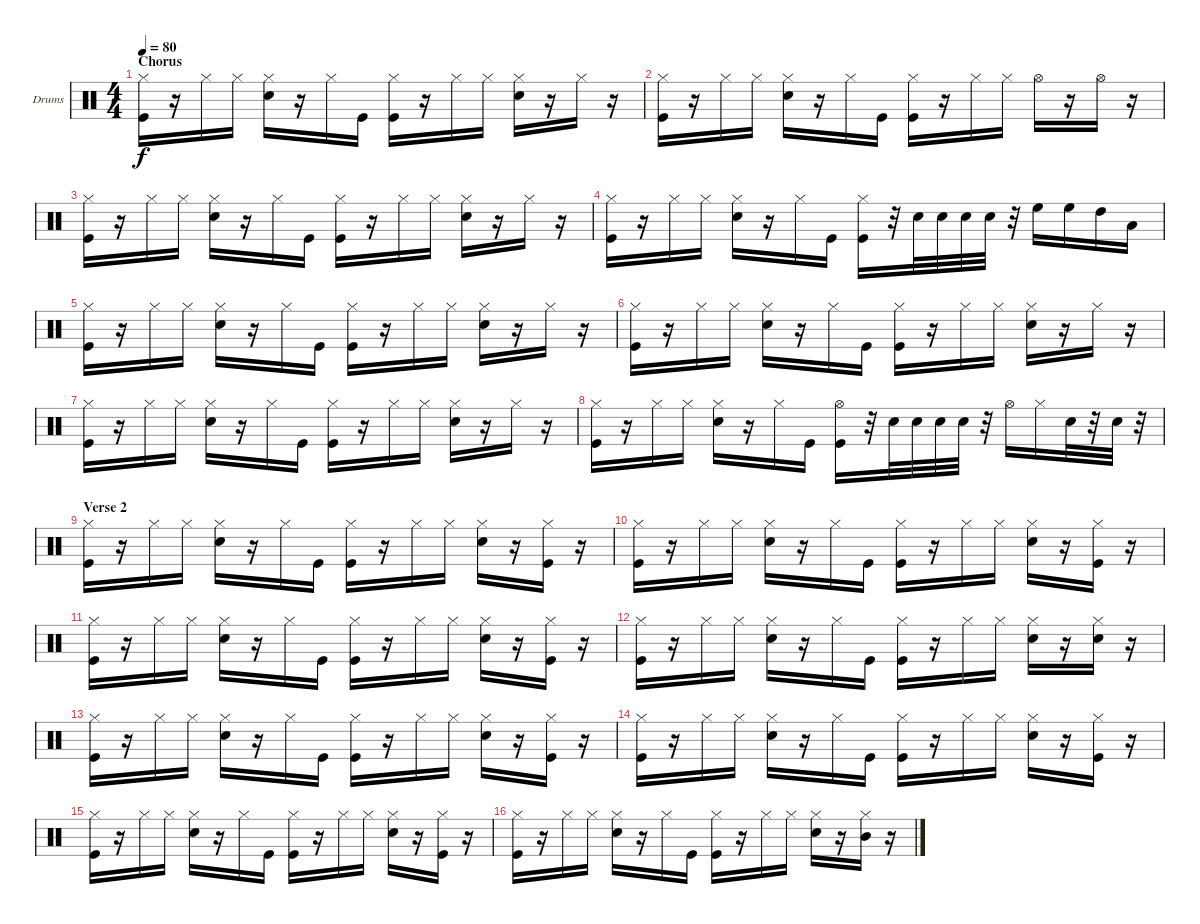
\bracketExtendMode groupsimilarinstruments
\firstSystemTrackNameOrientation horizontal
\otherSystemsTrackNameOrientation horizontal
\track ("Drumkit" "Drums") {instrument percussion}
\staff {score}
\articulation defaults
\ts (4 4)
\section ("" "Chorus")
\tempo 80
\clef neutral
\ks c
("Kick (hit)" "Hi-Hat (closed)").16{dy f} r.16 "Hi-Hat (closed)".16 "Hi-Hat (closed)".16 ("Snare (hit) 2" "Hi-Hat (closed)").16 r.16 "Hi-Hat (closed)".16 "Kick (hit)".16 ("Kick (hit)" "Hi-Hat (closed)").16 r.16 "Hi-Hat (closed)".16 "Hi-Hat (closed)".16 ("Snare (hit) 2" "Hi-Hat (closed)").16 r.16 "Hi-Hat (closed)".16 r.16 |
("Kick (hit)" "Hi-Hat (closed)").16 r.16 "Hi-Hat (closed)".16 "Hi-Hat (closed)".16 ("Snare (hit) 2" "Hi-Hat (closed)").16 r.16 "Hi-Hat (closed)".16 "Kick (hit)".16 ("Kick (hit)" "Hi-Hat (closed)").16 r.16 "Hi-Hat (closed)".16 "Hi-Hat (closed)".16 "Hi-Hat (open)".16 r.16 "Hi-Hat (open)".16 r.16 |
("Kick (hit)" "Hi-Hat (closed)").16 r.16 "Hi-Hat (closed)".16 "Hi-Hat (closed)".16 ("Snare (hit) 2" "Hi-Hat (closed)").16 r.16 "Hi-Hat (closed)".16 "Kick (hit)".16 ("Kick (hit)" "Hi-Hat (closed)").16 r.16 "Hi-Hat (closed)".16 "Hi-Hat (closed)".16 ("Snare (hit) 2" "Hi-Hat (closed)").16 r.16 "Hi-Hat (closed)".16 r.16 |
("Kick (hit)" "Hi-Hat (closed)").16 r.16 "Hi-Hat (closed)".16 "Hi-Hat (closed)".16 ("Snare (hit) 2" "Hi-Hat (closed)").16 r.16 "Hi-Hat (closed)".16 "Kick (hit)".16 ("Kick (hit)" "Hi-Hat (closed)").16 r.32 "Snare (hit) 2".32 "Snare (hit) 2".32 "Snare (hit) 2".32 "Snare (hit) 2".32 r.32 "High Floor Tom (hit)".16 "High Floor Tom (hit)".16 "High Tom (hit)".16 "Low Tom (hit)".16 |
("Kick (hit)" "Hi-Hat (closed)").16 r.16 "Hi-Hat (closed)".16 "Hi-Hat (closed)".16 ("Snare (hit) 2" "Hi-Hat (closed)").16 r.16 "Hi-Hat (closed)".16 "Kick (hit)".16 ("Kick (hit)" "Hi-Hat (closed)").16 r.16 "Hi-Hat (closed)".16 "Hi-Hat (closed)".16 ("Snare (hit) 2" "Hi-Hat (closed)").16 r.16 "Hi-Hat (closed)".16 r.16 |
("Kick (hit)" "Hi-Hat (closed)").16 r.16 "Hi-Hat (closed)".16 "Hi-Hat (closed)".16 ("Snare (hit) 2" "Hi-Hat (closed)").16 r.16 "Hi-Hat (closed)".16 "Kick (hit)".16 ("Kick (hit)" "Hi-Hat (closed)").16 r.16 "Hi-Hat (closed)".16 "Hi-Hat (closed)".16 ("Snare (hit) 2" "Hi-Hat (closed)").16 r.16 "Hi-Hat (closed)".16 r.16 |
("Kick (hit)" "Hi-Hat (closed)").16 r.16 "Hi-Hat (closed)".16 "Hi-Hat (closed)".16 ("Snare (hit) 2" "Hi-Hat (closed)").16 r.16 "Hi-Hat (closed)".16 "Kick (hit)".16 ("Kick (hit)" "Hi-Hat (closed)").16 r.16 "Hi-Hat (closed)".16 "Hi-Hat (closed)".16 ("Snare (hit) 2" "Hi-Hat (closed)").16 r.16 "Hi-Hat (closed)".16 r.16 |
("Kick (hit)" "Hi-Hat (closed)").16 r.16 "Hi-Hat (closed)".16 "Hi-Hat (closed)".16 ("Snare (hit) 2" "Hi-Hat (closed)").16 r.16 "Hi-Hat (closed)".16 "Kick (hit)".16 ("Kick (hit)" "Hi-Hat (open)").16 r.32 "Snare (hit) 2".32 "Snare (hit) 2".32 "Snare (hit) 2".32 "Snare (hit) 2".32 r.32 "Hi-Hat (open)".16 "Hi-Hat (closed)".16 "Snare (hit) 2".32 r.32 "Snare (hit) 2".32 r.32 |
\section ("" "Verse 2")
("Kick (hit)" "Hi-Hat (closed)").16 r.16 "Hi-Hat (closed)".16 "Hi-Hat (closed)".16 ("Snare (hit) 2" "Hi-Hat (closed)").16 r.16 "Hi-Hat (closed)".16 "Kick (hit)".16 ("Kick (hit)" "Hi-Hat (closed)").16 r.16 "Hi-Hat (closed)".16 "Hi-Hat (closed)".16 ("Snare (hit) 2" "Hi-Hat (closed)").16 r.16 ("Kick (hit)" "Hi-Hat (closed)").16 r.16 |
("Kick (hit)" "Hi-Hat (closed)").16 r.16 "Hi-Hat (closed)".16 "Hi-Hat (closed)".16 ("Snare (hit) 2" "Hi-Hat (closed)").16 r.16 "Hi-Hat (closed)".16 "Kick (hit)".16 ("Kick (hit)" "Hi-Hat (closed)").16 r.16 "Hi-Hat (closed)".16 "Hi-Hat (closed)".16 ("Snare (hit) 2" "Hi-Hat (closed)").16 r.16 ("Kick (hit)" "Hi-Hat (closed)").16 r.16 |
("Kick (hit)" "Hi-Hat (closed)").16 r.16 "Hi-Hat (closed)".16 "Hi-Hat (closed)".16 ("Snare (hit) 2" "Hi-Hat (closed)").16 r.16 "Hi-Hat (closed)".16 "Kick (hit)".16 ("Kick (hit)" "Hi-Hat (closed)").16 r.16 "Hi-Hat (closed)".16 "Hi-Hat (closed)".16 ("Snare (hit) 2" "Hi-Hat (closed)").16 r.16 ("Kick (hit)" "Hi-Hat (closed)").16 r.16 |
("Kick (hit)" "Hi-Hat (closed)").16 r.16 "Hi-Hat (closed)".16 "Hi-Hat (closed)".16 ("Snare (hit) 2" "Hi-Hat (closed)").16 r.16 "Hi-Hat (closed)".16 "Kick (hit)".16 ("Kick (hit)" "Hi-Hat (closed)").16 r.16 "Hi-Hat (closed)".16 "Hi-Hat (closed)".16 ("Snare (hit) 2" "Hi-Hat (closed)").16 r.16 ("Snare (hit) 2" "Hi-Hat (closed)").16 r.16 |
("Kick (hit)" "Hi-Hat (closed)").16 r.16 "Hi-Hat (closed)".16 "Hi-Hat (closed)".16 ("Snare (hit) 2" "Hi-Hat (closed)").16 r.16 "Hi-Hat (closed)".16 "Kick (hit)".16 ("Kick (hit)" "Hi-Hat (closed)").16 r.16 "Hi-Hat (closed)".16 "Hi-Hat (closed)".16 ("Snare (hit) 2" "Hi-Hat (closed)").16 r.16 ("Kick (hit)" "Hi-Hat (closed)").16 r.16 |
("Kick (hit)" "Hi-Hat (closed)").16 r.16 "Hi-Hat (closed)".16 "Hi-Hat (closed)".16 ("Snare (hit) 2" "Hi-Hat (closed)").16 r.16 "Hi-Hat (closed)".16 "Kick (hit)".16 ("Kick (hit)" "Hi-Hat (closed)").16 r.16 "Hi-Hat (closed)".16 "Hi-Hat (closed)".16 ("Snare (hit) 2" "Hi-Hat (closed)").16 r.16 ("Kick (hit)" "Hi-Hat (closed)").16 r.16 |
("Kick (hit)" "Hi-Hat (closed)").16 r.16 "Hi-Hat (closed)".16 "Hi-Hat (closed)".16 ("Snare (hit) 2" "Hi-Hat (closed)").16 r.16 "Hi-Hat (closed)".16 "Kick (hit)".16 ("Kick (hit)" "Hi-Hat (closed)").16 r.16 "Hi-Hat (closed)".16 "Hi-Hat (closed)".16 ("Snare (hit) 2" "Hi-Hat (closed)").16 r.16 ("Kick (hit)" "Hi-Hat (closed)").16 r.16 |
("Kick (hit)" "Hi-Hat (closed)").16 r.16 "Hi-Hat (closed)".16 "Hi-Hat (closed)".16 ("Snare (hit) 2" "Hi-Hat (closed)").16 r.16 "Hi-Hat (closed)".16 "Kick (hit)".16 ("Kick (hit)" "Hi-Hat (closed)").16 r.16 "Hi-Hat (closed)".16 "Hi-Hat (closed)".16 ("Snare (hit) 2" "Hi-Hat (closed)").16 r.16 ("Mid Tom (hit)" "Hi-Hat (closed)").16 r.16
